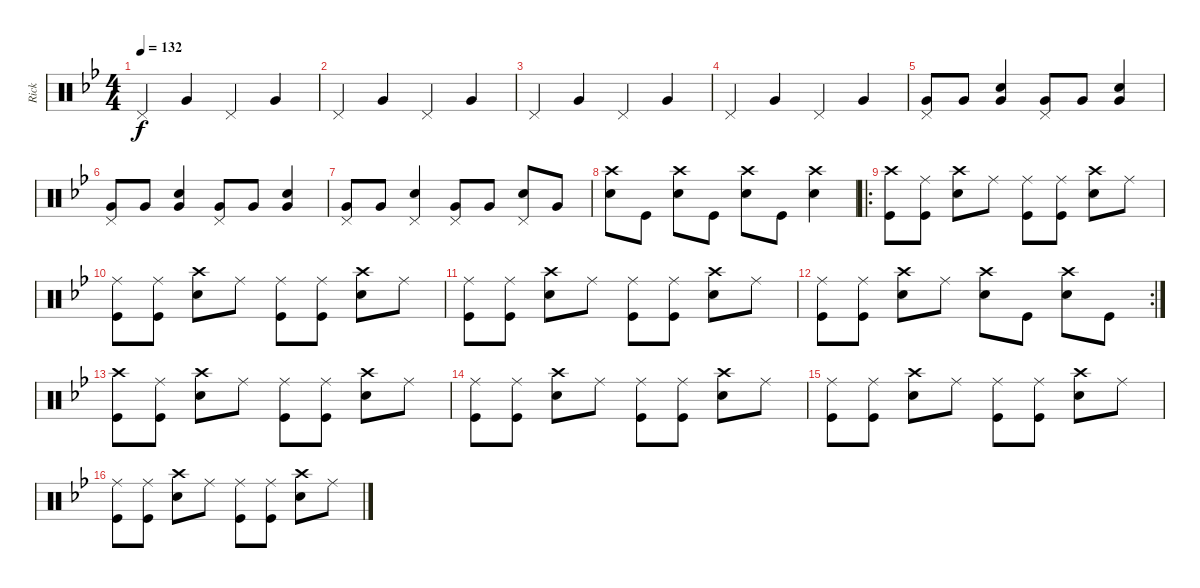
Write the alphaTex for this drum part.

\track ("Rick" "Rick") {instrument percussion}
\staff {score}
\articulation defaults
\ts (4 4)
\tempo 132
\clef neutral
\ks gminor "Pedal Hi-Hat (hit)".4{dy f} "Very Low Tom (hit)".4 "Pedal Hi-Hat (hit)".4 "Very Low Tom (hit)".4
|
"Pedal Hi-Hat (hit)".4 "Very Low Tom (hit)".4 "Pedal Hi-Hat (hit)".4 "Very Low Tom (hit)".4 |
"Pedal Hi-Hat (hit)".4 "Very Low Tom (hit)".4 "Pedal Hi-Hat (hit)".4 "Very Low Tom (hit)".4 |
"Pedal Hi-Hat (hit)".4 "Very Low Tom (hit)".4 "Pedal Hi-Hat (hit)".4 "Very Low Tom (hit)".4 |
("Very Low Tom (hit)" "Pedal Hi-Hat (hit)").8 "Very Low Tom (hit)".8 ("Snare (hit) 2" "Very Low Tom (hit)").4 ("Very Low Tom (hit)" "Pedal Hi-Hat (hit)").8 "Very Low Tom (hit)".8 ("Snare (hit) 2" "Very Low Tom (hit)").4 |
("Very Low Tom (hit)" "Pedal Hi-Hat (hit)").8 "Very Low Tom (hit)".8 ("Snare (hit) 2" "Very Low Tom (hit)").4 ("Very Low Tom (hit)" "Pedal Hi-Hat (hit)").8 "Very Low Tom (hit)".8 ("Snare (hit) 2" "Very Low Tom (hit)").4 |
("Very Low Tom (hit)" "Pedal Hi-Hat (hit)").8 "Very Low Tom (hit)".8 ("Snare (hit) 2" "Pedal Hi-Hat (hit)").4 ("Very Low Tom (hit)" "Pedal Hi-Hat (hit)").8 "Very Low Tom (hit)".8 ("Snare (hit) 2" "Pedal Hi-Hat (hit)").8 "Very Low Tom (hit)".8 |
("Crash high (hit)" "Snare (hit) 2").8 "Kick (hit)".8 ("Crash high (hit)" "Snare (hit) 2").8 "Kick (hit)".8 ("Crash high (hit)" "Snare (hit) 2").8 "Kick (hit)".8 ("Crash high (hit)" "Snare (hit) 2").4 |
\ro
("Crash high (hit)" "Kick (hit)").8 ("Ride (middle)" "Kick (hit)").8 ("Crash high (hit)" "Snare (hit) 2").8 "Ride (middle)".8 ("Ride (middle)" "Kick (hit)").8 ("Ride (middle)" "Kick (hit)").8 ("Crash high (hit)" "Snare (hit) 2").8 "Ride (middle)".8 |
("Ride (middle)" "Kick (hit)").8 ("Ride (middle)" "Kick (hit)").8 ("Crash high (hit)" "Snare (hit) 2").8 "Ride (middle)".8 ("Ride (middle)" "Kick (hit)").8 ("Ride (middle)" "Kick (hit)").8 ("Crash high (hit)" "Snare (hit) 2").8 "Ride (middle)".8 |
("Ride (middle)" "Kick (hit)").8 ("Ride (middle)" "Kick (hit)").8 ("Crash high (hit)" "Snare (hit) 2").8 "Ride (middle)".8 ("Ride (middle)" "Kick (hit)").8 ("Ride (middle)" "Kick (hit)").8 ("Crash high (hit)" "Snare (hit) 2").8 "Ride (middle)".8 |
\rc 2
("Ride (middle)" "Kick (hit)").8 ("Ride (middle)" "Kick (hit)").8 ("Crash high (hit)" "Snare (hit) 2").8 "Ride (middle)".8 ("Crash high (hit)" "Snare (hit) 2").8 "Kick (hit)".8 ("Crash high (hit)" "Snare (hit) 2").8 "Kick (hit)".8 |
("Crash high (hit)" "Kick (hit)").8 ("Ride (middle)" "Kick (hit)").8 ("Crash high (hit)" "Snare (hit) 2").8 "Ride (middle)".8 ("Ride (middle)" "Kick (hit)").8 ("Ride (middle)" "Kick (hit)").8 ("Crash high (hit)" "Snare (hit) 2").8 "Ride (middle)".8 |
("Ride (middle)" "Kick (hit)").8 ("Ride (middle)" "Kick (hit)").8 ("Crash high (hit)" "Snare (hit) 2").8 "Ride (middle)".8 ("Ride (middle)" "Kick (hit)").8 ("Ride (middle)" "Kick (hit)").8 ("Crash high (hit)" "Snare (hit) 2").8 "Ride (middle)".8 |
("Ride (middle)" "Kick (hit)").8 ("Ride (middle)" "Kick (hit)").8 ("Crash high (hit)" "Snare (hit) 2").8 "Ride (middle)".8 ("Ride (middle)" "Kick (hit)").8 ("Ride (middle)" "Kick (hit)").8 ("Crash high (hit)" "Snare (hit) 2").8 "Ride (middle)".8 |
("Ride (middle)" "Kick (hit)").8 ("Ride (middle)" "Kick (hit)").8 ("Crash high (hit)" "Snare (hit) 2").8 "Ride (middle)".8 ("Ride (middle)" "Kick (hit)").8 ("Ride (middle)" "Kick (hit)").8 ("Crash high (hit)" "Snare (hit) 2").8 "Ride (middle)".8
